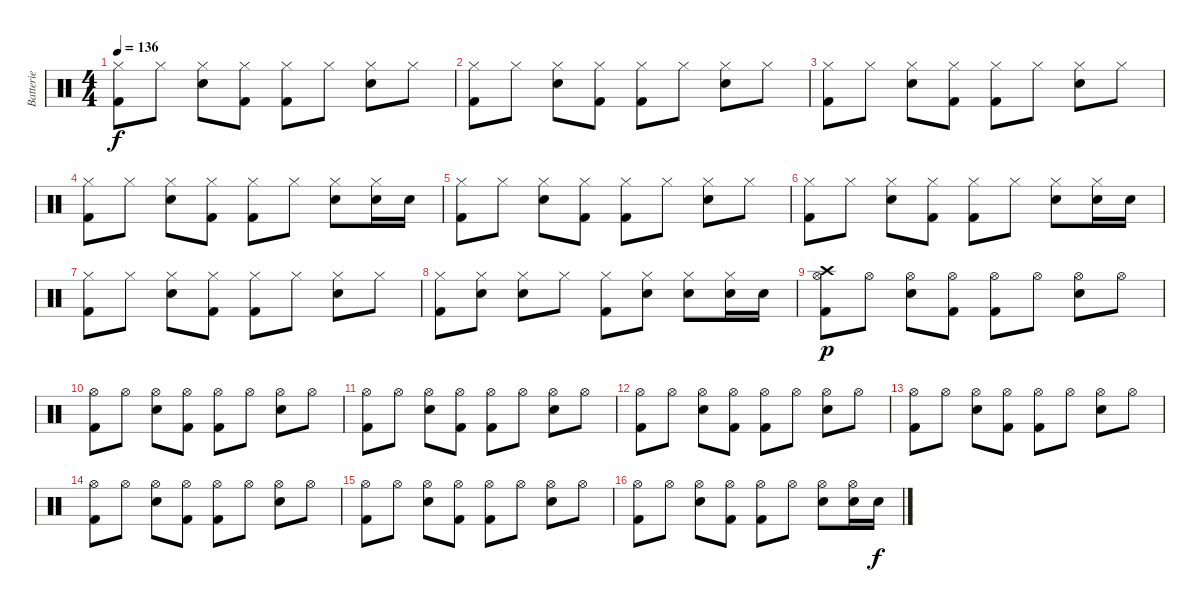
\track ("Batterie" "Batterie") {instrument percussion}
\staff {score}
\articulation defaults
\ts (4 4)
\tempo 136
\clef neutral
\ks c
("Hi-Hat (closed)" "Kick (hit) 2").8{dy f} "Hi-Hat (closed)".8 ("Hi-Hat (closed)" "Electric Snare (hit)").8 ("Hi-Hat (closed)" "Kick (hit) 2").8 ("Hi-Hat (closed)" "Kick (hit) 2").8 "Hi-Hat (closed)".8 ("Hi-Hat (closed)" "Electric Snare (hit)").8 "Hi-Hat (closed)".8 |
("Hi-Hat (closed)" "Kick (hit) 2").8 "Hi-Hat (closed)".8 ("Hi-Hat (closed)" "Electric Snare (hit)").8 ("Hi-Hat (closed)" "Kick (hit) 2").8 ("Hi-Hat (closed)" "Kick (hit) 2").8 "Hi-Hat (closed)".8 ("Hi-Hat (closed)" "Electric Snare (hit)").8 "Hi-Hat (closed)".8 |
("Hi-Hat (closed)" "Kick (hit) 2").8 "Hi-Hat (closed)".8 ("Hi-Hat (closed)" "Electric Snare (hit)").8 ("Hi-Hat (closed)" "Kick (hit) 2").8 ("Hi-Hat (closed)" "Kick (hit) 2").8 "Hi-Hat (closed)".8 ("Hi-Hat (closed)" "Electric Snare (hit)").8 "Hi-Hat (closed)".8 |
("Hi-Hat (closed)" "Kick (hit) 2").8 "Hi-Hat (closed)".8 ("Hi-Hat (closed)" "Electric Snare (hit)").8 ("Hi-Hat (closed)" "Kick (hit) 2").8 ("Hi-Hat (closed)" "Kick (hit) 2").8 "Hi-Hat (closed)".8 ("Hi-Hat (closed)" "Electric Snare (hit)").8 ("Hi-Hat (closed)" "Electric Snare (hit)").16 "Electric Snare (hit)".16 |
("Hi-Hat (closed)" "Kick (hit) 2").8 "Hi-Hat (closed)".8 ("Hi-Hat (closed)" "Electric Snare (hit)").8 ("Hi-Hat (closed)" "Kick (hit) 2").8 ("Hi-Hat (closed)" "Kick (hit) 2").8 "Hi-Hat (closed)".8 ("Hi-Hat (closed)" "Electric Snare (hit)").8 "Hi-Hat (closed)".8 |
("Hi-Hat (closed)" "Kick (hit) 2").8 "Hi-Hat (closed)".8 ("Hi-Hat (closed)" "Electric Snare (hit)").8 ("Hi-Hat (closed)" "Kick (hit) 2").8 ("Hi-Hat (closed)" "Kick (hit) 2").8 "Hi-Hat (closed)".8 ("Hi-Hat (closed)" "Electric Snare (hit)").8 ("Hi-Hat (closed)" "Electric Snare (hit)").16 "Electric Snare (hit)".16 |
("Hi-Hat (closed)" "Kick (hit) 2").8 "Hi-Hat (closed)".8 ("Hi-Hat (closed)" "Electric Snare (hit)").8 ("Hi-Hat (closed)" "Kick (hit) 2").8 ("Hi-Hat (closed)" "Kick (hit) 2").8 "Hi-Hat (closed)".8 ("Hi-Hat (closed)" "Electric Snare (hit)").8 "Hi-Hat (closed)".8 |
("Hi-Hat (closed)" "Kick (hit) 2").8 ("Hi-Hat (closed)" "Electric Snare (hit)").8 ("Hi-Hat (closed)" "Electric Snare (hit)").8 "Hi-Hat (closed)".8 ("Hi-Hat (closed)" "Kick (hit) 2").8 ("Hi-Hat (closed)" "Electric Snare (hit)").8 ("Hi-Hat (closed)" "Electric Snare (hit)").8 ("Hi-Hat (closed)" "Electric Snare (hit)").16 "Electric Snare (hit)".16 |
("Crash high (hit)" "Hi-Hat (open)" "Kick (hit) 2").8{dy p} "Hi-Hat (open)".8 ("Hi-Hat (open)" "Electric Snare (hit)").8 ("Hi-Hat (open)" "Kick (hit) 2").8 ("Hi-Hat (open)" "Kick (hit) 2").8 "Hi-Hat (open)".8 ("Hi-Hat (open)" "Electric Snare (hit)").8 "Hi-Hat (open)".8 |
("Hi-Hat (open)" "Kick (hit) 2").8 "Hi-Hat (open)".8 ("Hi-Hat (open)" "Electric Snare (hit)").8 ("Hi-Hat (open)" "Kick (hit) 2").8 ("Hi-Hat (open)" "Kick (hit) 2").8 "Hi-Hat (open)".8 ("Hi-Hat (open)" "Electric Snare (hit)").8 "Hi-Hat (open)".8 |
("Hi-Hat (open)" "Kick (hit) 2").8 "Hi-Hat (open)".8 ("Hi-Hat (open)" "Electric Snare (hit)").8 ("Hi-Hat (open)" "Kick (hit) 2").8 ("Hi-Hat (open)" "Kick (hit) 2").8 "Hi-Hat (open)".8 ("Hi-Hat (open)" "Electric Snare (hit)").8 "Hi-Hat (open)".8 |
("Hi-Hat (open)" "Kick (hit) 2").8 "Hi-Hat (open)".8 ("Hi-Hat (open)" "Electric Snare (hit)").8 ("Hi-Hat (open)" "Kick (hit) 2").8 ("Hi-Hat (open)" "Kick (hit) 2").8 "Hi-Hat (open)".8 ("Hi-Hat (open)" "Electric Snare (hit)").8 "Hi-Hat (open)".8 |
("Hi-Hat (open)" "Kick (hit) 2").8 "Hi-Hat (open)".8 ("Hi-Hat (open)" "Electric Snare (hit)").8 ("Hi-Hat (open)" "Kick (hit) 2").8 ("Hi-Hat (open)" "Kick (hit) 2").8 "Hi-Hat (open)".8 ("Hi-Hat (open)" "Electric Snare (hit)").8 "Hi-Hat (open)".8 |
("Hi-Hat (open)" "Kick (hit) 2").8 "Hi-Hat (open)".8 ("Hi-Hat (open)" "Electric Snare (hit)").8 ("Hi-Hat (open)" "Kick (hit) 2").8 ("Hi-Hat (open)" "Kick (hit) 2").8 "Hi-Hat (open)".8 ("Hi-Hat (open)" "Electric Snare (hit)").8 "Hi-Hat (open)".8 |
("Hi-Hat (open)" "Kick (hit) 2").8 "Hi-Hat (open)".8 ("Hi-Hat (open)" "Electric Snare (hit)").8 ("Hi-Hat (open)" "Kick (hit) 2").8 ("Hi-Hat (open)" "Kick (hit) 2").8 "Hi-Hat (open)".8 ("Hi-Hat (open)" "Electric Snare (hit)").8 "Hi-Hat (open)".8 |
("Hi-Hat (open)" "Kick (hit) 2").8 "Hi-Hat (open)".8 ("Hi-Hat (open)" "Electric Snare (hit)").8 ("Hi-Hat (open)" "Kick (hit) 2").8 ("Hi-Hat (open)" "Kick (hit) 2").8 "Hi-Hat (open)".8 ("Hi-Hat (open)" "Electric Snare (hit)").8 ("Hi-Hat (open)" "Electric Snare (hit)").16 "Electric Snare (hit)".16{dy f}
